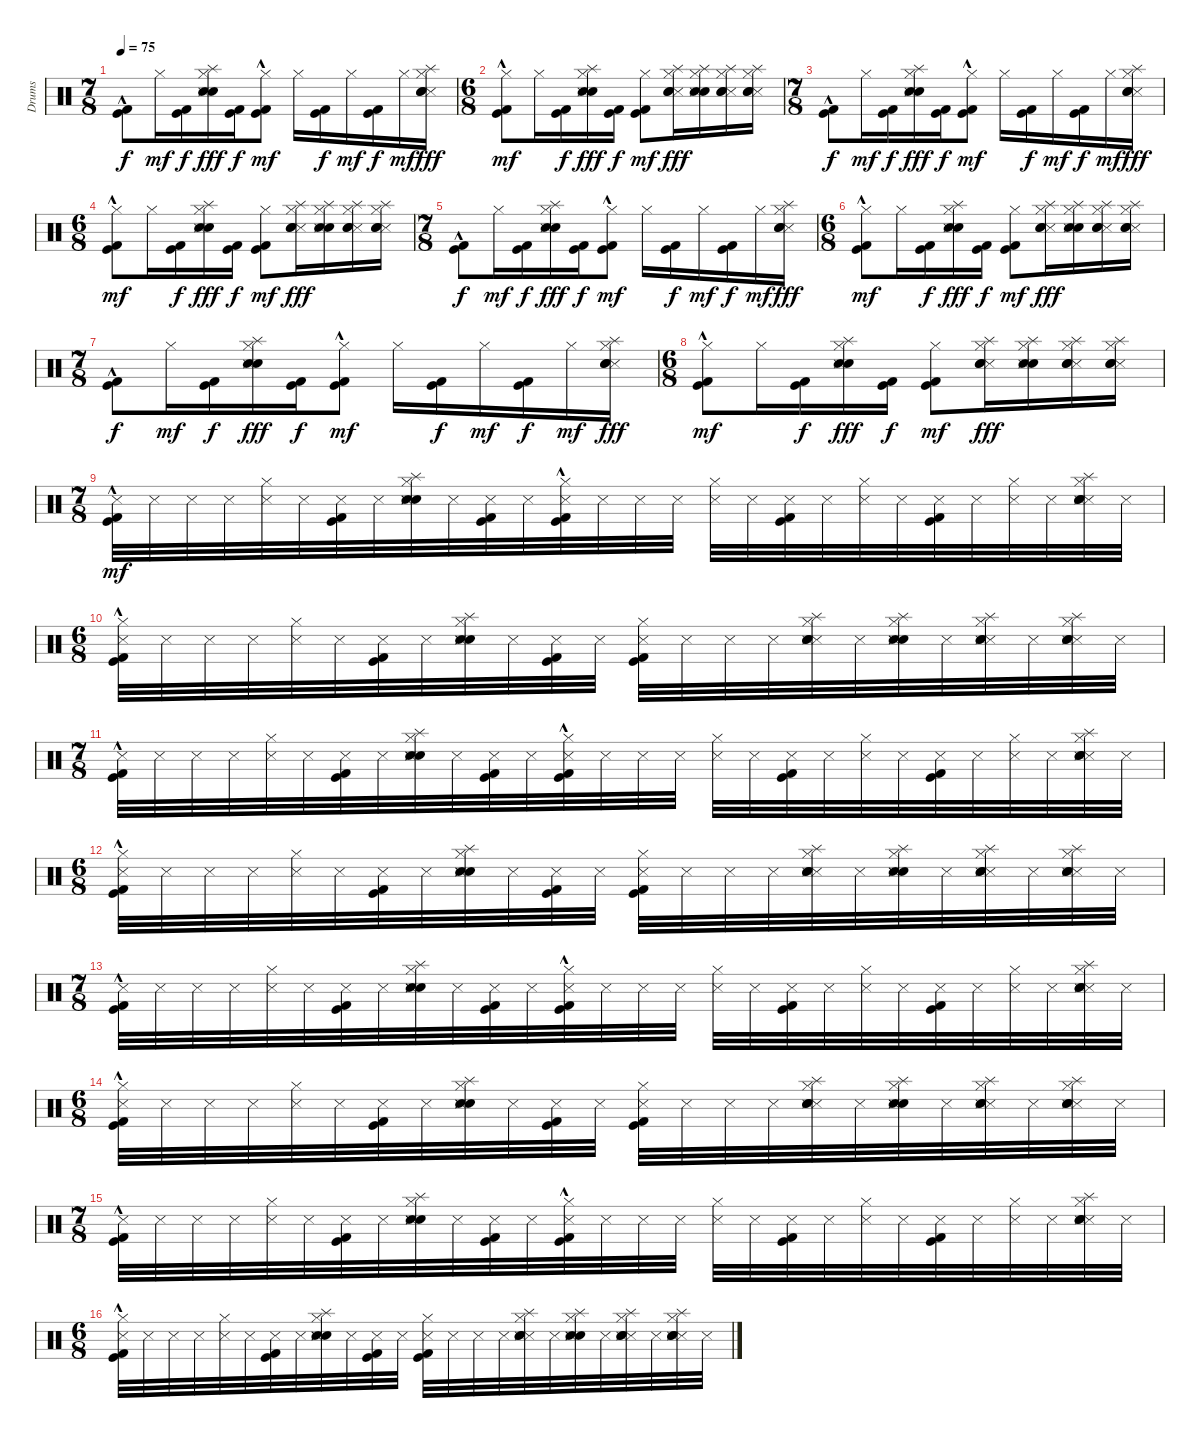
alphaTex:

\track ("Drums" "Drums") {instrument percussion}
\staff {score}
\articulation defaults
\ts (7 8)
\tempo 75
\clef neutral
\ks c
("Kick (hit)"{hac} "Kick (hit) 2"{hac}).8{dy f} "Hi-Hat (closed)".16{dy mf} ("Kick (hit)" "Kick (hit) 2").16{dy f} ("Hi-Hat (closed)" "Electric Snare (hit)" "Splash (hit)" "Metronome (hit)" "Snare (hit) 2").16{dy fff} ("Kick (hit)" "Kick (hit) 2").16{dy f} ("Hi-Hat (closed)" "Kick (hit) 2"{hac} "Kick (hit)"{hac}).8{dy mf} "Hi-Hat (closed)".16 ("Kick (hit)" "Kick (hit) 2").16{dy f} "Hi-Hat (closed)".16{dy mf} ("Kick (hit)" "Kick (hit) 2").16{dy f} "Hi-Hat (closed)".16{dy mf} ("Splash (hit)" "Hi-Hat (closed)" "Metronome (hit)" "Snare (hit) 2" "Electric Snare (hit)").16{dy fff} |
\ts (6 8)
("Hi-Hat (closed)" "Kick (hit)"{hac} "Kick (hit) 2"{hac}).8{dy mf} "Hi-Hat (closed)".16 ("Kick (hit)" "Kick (hit) 2").16{dy f} ("Hi-Hat (closed)" "Splash (hit)" "Snare (hit) 2" "Metronome (hit)" "Electric Snare (hit)").16{dy fff} ("Kick (hit)" "Kick (hit) 2").16{dy f} ("Hi-Hat (closed)" "Kick (hit)" "Kick (hit) 2").8{dy mf} ("Splash (hit)" "Metronome (hit)" "Electric Snare (hit)" "Hi-Hat (closed)" "Snare (hit) 2").16{dy fff} ("Splash (hit)" "Electric Snare (hit)" "Snare (hit) 2" "Metronome (hit)" "Hi-Hat (closed)").16 ("Splash (hit)" "Metronome (hit)" "Snare (hit) 2" "Electric Snare (hit)" "Hi-Hat (closed)").16 ("Splash (hit)" "Metronome (hit)" "Snare (hit) 2" "Electric Snare (hit)" "Hi-Hat (closed)").16 |
\ts (7 8)
("Kick (hit)"{hac} "Kick (hit) 2"{hac}).8{dy f} "Hi-Hat (closed)".16{dy mf} ("Kick (hit)" "Kick (hit) 2").16{dy f} ("Hi-Hat (closed)" "Electric Snare (hit)" "Splash (hit)" "Metronome (hit)" "Snare (hit) 2").16{dy fff} ("Kick (hit)" "Kick (hit) 2").16{dy f} ("Hi-Hat (closed)" "Kick (hit) 2"{hac} "Kick (hit)"{hac}).8{dy mf} "Hi-Hat (closed)".16 ("Kick (hit)" "Kick (hit) 2").16{dy f} "Hi-Hat (closed)".16{dy mf} ("Kick (hit)" "Kick (hit) 2").16{dy f} "Hi-Hat (closed)".16{dy mf} ("Splash (hit)" "Hi-Hat (closed)" "Metronome (hit)" "Snare (hit) 2" "Electric Snare (hit)").16{dy fff} |
\ts (6 8)
("Hi-Hat (closed)" "Kick (hit)"{hac} "Kick (hit) 2"{hac}).8{dy mf} "Hi-Hat (closed)".16 ("Kick (hit)" "Kick (hit) 2").16{dy f} ("Hi-Hat (closed)" "Splash (hit)" "Snare (hit) 2" "Metronome (hit)" "Electric Snare (hit)").16{dy fff} ("Kick (hit)" "Kick (hit) 2").16{dy f} ("Hi-Hat (closed)" "Kick (hit)" "Kick (hit) 2").8{dy mf} ("Splash (hit)" "Metronome (hit)" "Electric Snare (hit)" "Hi-Hat (closed)" "Snare (hit) 2").16{dy fff} ("Splash (hit)" "Electric Snare (hit)" "Snare (hit) 2" "Metronome (hit)" "Hi-Hat (closed)").16 ("Splash (hit)" "Metronome (hit)" "Snare (hit) 2" "Electric Snare (hit)" "Hi-Hat (closed)").16 ("Splash (hit)" "Metronome (hit)" "Snare (hit) 2" "Electric Snare (hit)" "Hi-Hat (closed)").16 |
\ts (7 8)
("Kick (hit)"{hac} "Kick (hit) 2"{hac}).8{dy f} "Hi-Hat (closed)".16{dy mf} ("Kick (hit)" "Kick (hit) 2").16{dy f} ("Hi-Hat (closed)" "Electric Snare (hit)" "Splash (hit)" "Metronome (hit)" "Snare (hit) 2").16{dy fff} ("Kick (hit)" "Kick (hit) 2").16{dy f} ("Hi-Hat (closed)" "Kick (hit) 2"{hac} "Kick (hit)"{hac}).8{dy mf} "Hi-Hat (closed)".16 ("Kick (hit)" "Kick (hit) 2").16{dy f} "Hi-Hat (closed)".16{dy mf} ("Kick (hit)" "Kick (hit) 2").16{dy f} "Hi-Hat (closed)".16{dy mf} ("Splash (hit)" "Hi-Hat (closed)" "Metronome (hit)" "Snare (hit) 2" "Electric Snare (hit)").16{dy fff} |
\ts (6 8)
("Hi-Hat (closed)" "Kick (hit)"{hac} "Kick (hit) 2"{hac}).8{dy mf} "Hi-Hat (closed)".16 ("Kick (hit)" "Kick (hit) 2").16{dy f} ("Hi-Hat (closed)" "Splash (hit)" "Snare (hit) 2" "Metronome (hit)" "Electric Snare (hit)").16{dy fff} ("Kick (hit)" "Kick (hit) 2").16{dy f} ("Hi-Hat (closed)" "Kick (hit)" "Kick (hit) 2").8{dy mf} ("Splash (hit)" "Metronome (hit)" "Electric Snare (hit)" "Hi-Hat (closed)" "Snare (hit) 2").16{dy fff} ("Splash (hit)" "Electric Snare (hit)" "Snare (hit) 2" "Metronome (hit)" "Hi-Hat (closed)").16 ("Splash (hit)" "Metronome (hit)" "Snare (hit) 2" "Electric Snare (hit)" "Hi-Hat (closed)").16 ("Splash (hit)" "Metronome (hit)" "Snare (hit) 2" "Electric Snare (hit)" "Hi-Hat (closed)").16 |
\ts (7 8)
("Kick (hit)"{hac} "Kick (hit) 2"{hac}).8{dy f} "Hi-Hat (closed)".16{dy mf} ("Kick (hit)" "Kick (hit) 2").16{dy f} ("Hi-Hat (closed)" "Electric Snare (hit)" "Splash (hit)" "Metronome (hit)" "Snare (hit) 2").16{dy fff} ("Kick (hit)" "Kick (hit) 2").16{dy f} ("Hi-Hat (closed)" "Kick (hit) 2"{hac} "Kick (hit)"{hac}).8{dy mf} "Hi-Hat (closed)".16 ("Kick (hit)" "Kick (hit) 2").16{dy f} "Hi-Hat (closed)".16{dy mf} ("Kick (hit)" "Kick (hit) 2").16{dy f} "Hi-Hat (closed)".16{dy mf} ("Splash (hit)" "Hi-Hat (closed)" "Metronome (hit)" "Snare (hit) 2" "Electric Snare (hit)").16{dy fff} |
\ts (6 8)
("Hi-Hat (closed)" "Kick (hit)"{hac} "Kick (hit) 2"{hac}).8{dy mf} "Hi-Hat (closed)".16 ("Kick (hit)" "Kick (hit) 2").16{dy f} ("Hi-Hat (closed)" "Splash (hit)" "Snare (hit) 2" "Metronome (hit)" "Electric Snare (hit)").16{dy fff} ("Kick (hit)" "Kick (hit) 2").16{dy f} ("Hi-Hat (closed)" "Kick (hit)" "Kick (hit) 2").8{dy mf} ("Splash (hit)" "Metronome (hit)" "Electric Snare (hit)" "Hi-Hat (closed)" "Snare (hit) 2").16{dy fff} ("Splash (hit)" "Electric Snare (hit)" "Snare (hit) 2" "Metronome (hit)" "Hi-Hat (closed)").16 ("Splash (hit)" "Metronome (hit)" "Snare (hit) 2" "Electric Snare (hit)" "Hi-Hat (closed)").16 ("Splash (hit)" "Metronome (hit)" "Snare (hit) 2" "Electric Snare (hit)" "Hi-Hat (closed)").16 |
\ts (7 8)
("Kick (hit)"{hac} "Kick (hit) 2"{hac} "Metronome (hit)").32{dy mf} "Metronome (hit)".32 "Metronome (hit)".32 "Metronome (hit)".32 ("Hi-Hat (closed)" "Metronome (hit)").32 "Metronome (hit)".32 ("Kick (hit)" "Kick (hit) 2" "Metronome (hit)").32 "Metronome (hit)".32 ("Hi-Hat (closed)" "Electric Snare (hit)" "Splash (hit)" "Metronome (hit)" "Snare (hit) 2" "Metronome (hit)").32 "Metronome (hit)".32 ("Kick (hit)" "Kick (hit) 2" "Metronome (hit)").32 "Metronome (hit)".32 ("Hi-Hat (closed)" "Kick (hit) 2"{hac} "Kick (hit)"{hac} "Metronome (hit)").32 "Metronome (hit)".32 "Metronome (hit)".32 "Metronome (hit)".32 ("Hi-Hat (closed)" "Metronome (hit)").32 "Metronome (hit)".32 ("Kick (hit)" "Kick (hit) 2" "Metronome (hit)").32 "Metronome (hit)".32 ("Hi-Hat (closed)" "Metronome (hit)").32 "Metronome (hit)".32 ("Kick (hit)" "Kick (hit) 2" "Metronome (hit)").32 "Metronome (hit)".32 ("Hi-Hat (closed)" "Metronome (hit)").32 "Metronome (hit)".32 ("Splash (hit)" "Hi-Hat (closed)" "Metronome (hit)" "Snare (hit) 2" "Electric Snare (hit)" "Metronome (hit)").32 "Metronome (hit)".32 |
\ts (6 8)
("Hi-Hat (closed)" "Kick (hit)"{hac} "Kick (hit) 2"{hac} "Metronome (hit)").32 "Metronome (hit)".32 "Metronome (hit)".32 "Metronome (hit)".32 ("Hi-Hat (closed)" "Metronome (hit)").32 "Metronome (hit)".32 ("Kick (hit)" "Kick (hit) 2" "Metronome (hit)").32 "Metronome (hit)".32 ("Hi-Hat (closed)" "Splash (hit)" "Snare (hit) 2" "Metronome (hit)" "Electric Snare (hit)" "Metronome (hit)").32 "Metronome (hit)".32 ("Kick (hit)" "Kick (hit) 2" "Metronome (hit)").32 "Metronome (hit)".32 ("Hi-Hat (closed)" "Kick (hit)" "Kick (hit) 2" "Metronome (hit)").32 "Metronome (hit)".32 "Metronome (hit)".32 "Metronome (hit)".32 ("Splash (hit)" "Metronome (hit)" "Electric Snare (hit)" "Hi-Hat (closed)" "Snare (hit) 2" "Metronome (hit)").32 "Metronome (hit)".32 ("Splash (hit)" "Electric Snare (hit)" "Snare (hit) 2" "Metronome (hit)" "Hi-Hat (closed)" "Metronome (hit)").32 "Metronome (hit)".32 ("Splash (hit)" "Metronome (hit)" "Snare (hit) 2" "Electric Snare (hit)" "Hi-Hat (closed)" "Metronome (hit)").32 "Metronome (hit)".32 ("Splash (hit)" "Metronome (hit)" "Snare (hit) 2" "Electric Snare (hit)" "Hi-Hat (closed)" "Metronome (hit)").32 "Metronome (hit)".32 |
\ts (7 8)
("Kick (hit)"{hac} "Kick (hit) 2"{hac} "Metronome (hit)").32 "Metronome (hit)".32 "Metronome (hit)".32 "Metronome (hit)".32 ("Hi-Hat (closed)" "Metronome (hit)").32 "Metronome (hit)".32 ("Kick (hit)" "Kick (hit) 2" "Metronome (hit)").32 "Metronome (hit)".32 ("Hi-Hat (closed)" "Electric Snare (hit)" "Splash (hit)" "Metronome (hit)" "Snare (hit) 2" "Metronome (hit)").32 "Metronome (hit)".32 ("Kick (hit)" "Kick (hit) 2" "Metronome (hit)").32 "Metronome (hit)".32 ("Hi-Hat (closed)" "Kick (hit) 2"{hac} "Kick (hit)"{hac} "Metronome (hit)").32 "Metronome (hit)".32 "Metronome (hit)".32 "Metronome (hit)".32 ("Hi-Hat (closed)" "Metronome (hit)").32 "Metronome (hit)".32 ("Kick (hit)" "Kick (hit) 2" "Metronome (hit)").32 "Metronome (hit)".32 ("Hi-Hat (closed)" "Metronome (hit)").32 "Metronome (hit)".32 ("Kick (hit)" "Kick (hit) 2" "Metronome (hit)").32 "Metronome (hit)".32 ("Hi-Hat (closed)" "Metronome (hit)").32 "Metronome (hit)".32 ("Splash (hit)" "Hi-Hat (closed)" "Metronome (hit)" "Snare (hit) 2" "Electric Snare (hit)" "Metronome (hit)").32 "Metronome (hit)".32 |
\ts (6 8)
("Hi-Hat (closed)" "Kick (hit)"{hac} "Kick (hit) 2"{hac} "Metronome (hit)").32 "Metronome (hit)".32 "Metronome (hit)".32 "Metronome (hit)".32 ("Hi-Hat (closed)" "Metronome (hit)").32 "Metronome (hit)".32 ("Kick (hit)" "Kick (hit) 2" "Metronome (hit)").32 "Metronome (hit)".32 ("Hi-Hat (closed)" "Splash (hit)" "Snare (hit) 2" "Metronome (hit)" "Electric Snare (hit)" "Metronome (hit)").32 "Metronome (hit)".32 ("Kick (hit)" "Kick (hit) 2" "Metronome (hit)").32 "Metronome (hit)".32 ("Hi-Hat (closed)" "Kick (hit)" "Kick (hit) 2" "Metronome (hit)").32 "Metronome (hit)".32 "Metronome (hit)".32 "Metronome (hit)".32 ("Splash (hit)" "Metronome (hit)" "Electric Snare (hit)" "Hi-Hat (closed)" "Snare (hit) 2" "Metronome (hit)").32 "Metronome (hit)".32 ("Splash (hit)" "Electric Snare (hit)" "Snare (hit) 2" "Metronome (hit)" "Hi-Hat (closed)" "Metronome (hit)").32 "Metronome (hit)".32 ("Splash (hit)" "Metronome (hit)" "Snare (hit) 2" "Electric Snare (hit)" "Hi-Hat (closed)" "Metronome (hit)").32 "Metronome (hit)".32 ("Splash (hit)" "Metronome (hit)" "Snare (hit) 2" "Electric Snare (hit)" "Hi-Hat (closed)" "Metronome (hit)").32 "Metronome (hit)".32 |
\ts (7 8)
("Kick (hit)"{hac} "Kick (hit) 2"{hac} "Metronome (hit)").32 "Metronome (hit)".32 "Metronome (hit)".32 "Metronome (hit)".32 ("Hi-Hat (closed)" "Metronome (hit)").32 "Metronome (hit)".32 ("Kick (hit)" "Kick (hit) 2" "Metronome (hit)").32 "Metronome (hit)".32 ("Hi-Hat (closed)" "Electric Snare (hit)" "Splash (hit)" "Metronome (hit)" "Snare (hit) 2" "Metronome (hit)").32 "Metronome (hit)".32 ("Kick (hit)" "Kick (hit) 2" "Metronome (hit)").32 "Metronome (hit)".32 ("Hi-Hat (closed)" "Kick (hit) 2"{hac} "Kick (hit)"{hac} "Metronome (hit)").32 "Metronome (hit)".32 "Metronome (hit)".32 "Metronome (hit)".32 ("Hi-Hat (closed)" "Metronome (hit)").32 "Metronome (hit)".32 ("Kick (hit)" "Kick (hit) 2" "Metronome (hit)").32 "Metronome (hit)".32 ("Hi-Hat (closed)" "Metronome (hit)").32 "Metronome (hit)".32 ("Kick (hit)" "Kick (hit) 2" "Metronome (hit)").32 "Metronome (hit)".32 ("Hi-Hat (closed)" "Metronome (hit)").32 "Metronome (hit)".32 ("Splash (hit)" "Hi-Hat (closed)" "Metronome (hit)" "Snare (hit) 2" "Electric Snare (hit)" "Metronome (hit)").32 "Metronome (hit)".32 |
\ts (6 8)
("Hi-Hat (closed)" "Kick (hit)"{hac} "Kick (hit) 2"{hac} "Metronome (hit)").32 "Metronome (hit)".32 "Metronome (hit)".32 "Metronome (hit)".32 ("Hi-Hat (closed)" "Metronome (hit)").32 "Metronome (hit)".32 ("Kick (hit)" "Kick (hit) 2" "Metronome (hit)").32 "Metronome (hit)".32 ("Hi-Hat (closed)" "Splash (hit)" "Snare (hit) 2" "Metronome (hit)" "Electric Snare (hit)" "Metronome (hit)").32 "Metronome (hit)".32 ("Kick (hit)" "Kick (hit) 2" "Metronome (hit)").32 "Metronome (hit)".32 ("Hi-Hat (closed)" "Kick (hit)" "Kick (hit) 2" "Metronome (hit)").32 "Metronome (hit)".32 "Metronome (hit)".32 "Metronome (hit)".32 ("Splash (hit)" "Metronome (hit)" "Electric Snare (hit)" "Hi-Hat (closed)" "Snare (hit) 2" "Metronome (hit)").32 "Metronome (hit)".32 ("Splash (hit)" "Electric Snare (hit)" "Snare (hit) 2" "Metronome (hit)" "Hi-Hat (closed)" "Metronome (hit)").32 "Metronome (hit)".32 ("Splash (hit)" "Metronome (hit)" "Snare (hit) 2" "Electric Snare (hit)" "Hi-Hat (closed)" "Metronome (hit)").32 "Metronome (hit)".32 ("Splash (hit)" "Metronome (hit)" "Snare (hit) 2" "Electric Snare (hit)" "Hi-Hat (closed)" "Metronome (hit)").32 "Metronome (hit)".32 |
\ts (7 8)
("Kick (hit)"{hac} "Kick (hit) 2"{hac} "Metronome (hit)").32 "Metronome (hit)".32 "Metronome (hit)".32 "Metronome (hit)".32 ("Hi-Hat (closed)" "Metronome (hit)").32 "Metronome (hit)".32 ("Kick (hit)" "Kick (hit) 2" "Metronome (hit)").32 "Metronome (hit)".32 ("Hi-Hat (closed)" "Electric Snare (hit)" "Splash (hit)" "Metronome (hit)" "Snare (hit) 2" "Metronome (hit)").32 "Metronome (hit)".32 ("Kick (hit)" "Kick (hit) 2" "Metronome (hit)").32 "Metronome (hit)".32 ("Hi-Hat (closed)" "Kick (hit) 2"{hac} "Kick (hit)"{hac} "Metronome (hit)").32 "Metronome (hit)".32 "Metronome (hit)".32 "Metronome (hit)".32 ("Hi-Hat (closed)" "Metronome (hit)").32 "Metronome (hit)".32 ("Kick (hit)" "Kick (hit) 2" "Metronome (hit)").32 "Metronome (hit)".32 ("Hi-Hat (closed)" "Metronome (hit)").32 "Metronome (hit)".32 ("Kick (hit)" "Kick (hit) 2" "Metronome (hit)").32 "Metronome (hit)".32 ("Hi-Hat (closed)" "Metronome (hit)").32 "Metronome (hit)".32 ("Splash (hit)" "Hi-Hat (closed)" "Metronome (hit)" "Snare (hit) 2" "Electric Snare (hit)" "Metronome (hit)").32 "Metronome (hit)".32 |
\ts (6 8)
("Hi-Hat (closed)" "Kick (hit)"{hac} "Kick (hit) 2"{hac} "Metronome (hit)").32 "Metronome (hit)".32 "Metronome (hit)".32 "Metronome (hit)".32 ("Hi-Hat (closed)" "Metronome (hit)").32 "Metronome (hit)".32 ("Kick (hit)" "Kick (hit) 2" "Metronome (hit)").32 "Metronome (hit)".32 ("Hi-Hat (closed)" "Splash (hit)" "Snare (hit) 2" "Metronome (hit)" "Electric Snare (hit)" "Metronome (hit)").32 "Metronome (hit)".32 ("Kick (hit)" "Kick (hit) 2" "Metronome (hit)").32 "Metronome (hit)".32 ("Hi-Hat (closed)" "Kick (hit)" "Kick (hit) 2" "Metronome (hit)").32 "Metronome (hit)".32 "Metronome (hit)".32 "Metronome (hit)".32 ("Splash (hit)" "Metronome (hit)" "Electric Snare (hit)" "Hi-Hat (closed)" "Snare (hit) 2" "Metronome (hit)").32 "Metronome (hit)".32 ("Splash (hit)" "Electric Snare (hit)" "Snare (hit) 2" "Metronome (hit)" "Hi-Hat (closed)" "Metronome (hit)").32 "Metronome (hit)".32 ("Splash (hit)" "Metronome (hit)" "Snare (hit) 2" "Electric Snare (hit)" "Hi-Hat (closed)" "Metronome (hit)").32 "Metronome (hit)".32 ("Splash (hit)" "Metronome (hit)" "Snare (hit) 2" "Electric Snare (hit)" "Hi-Hat (closed)" "Metronome (hit)").32 "Metronome (hit)".32
